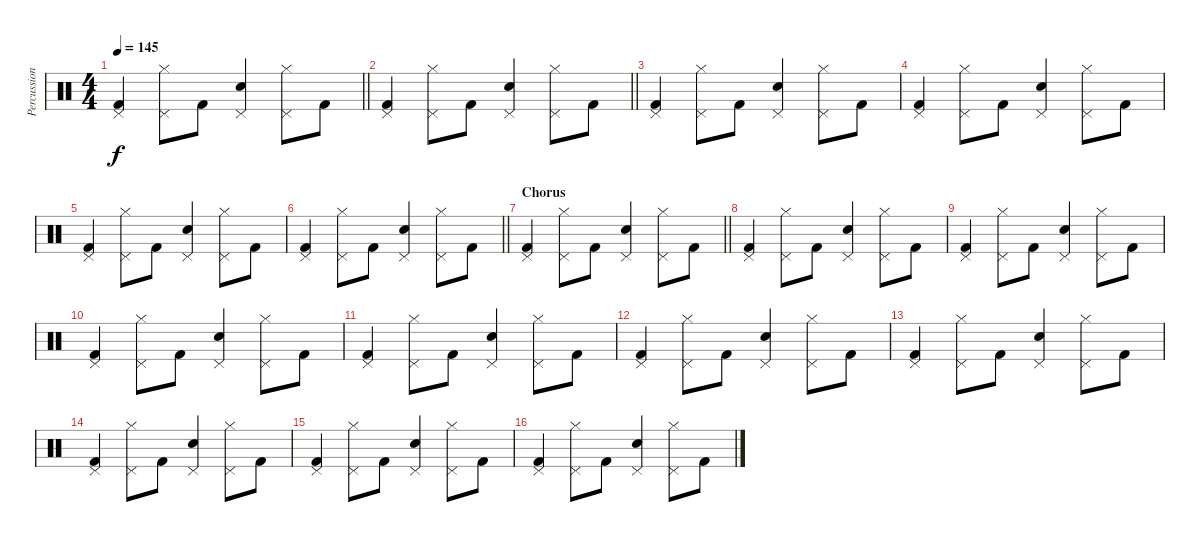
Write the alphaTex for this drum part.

\track ("Percussion" "Percussion") {instrument percussion}
\staff {score}
\articulation defaults
\ts (4 4)
\tempo 145
\clef neutral
\barLineRight lightlight
\ks c
("Kick (hit) 2" "Pedal Hi-Hat (hit)").4{dy f} ("Hi-Hat (closed)" "Pedal Hi-Hat (hit)").8 "Kick (hit) 2".8 ("Snare (hit) 2" "Pedal Hi-Hat (hit)").4 ("Hi-Hat (closed)" "Pedal Hi-Hat (hit)").8 "Kick (hit) 2".8 |
\barLineRight lightlight
("Kick (hit) 2" "Pedal Hi-Hat (hit)").4 ("Hi-Hat (closed)" "Pedal Hi-Hat (hit)").8 "Kick (hit) 2".8 ("Snare (hit) 2" "Pedal Hi-Hat (hit)").4 ("Hi-Hat (closed)" "Pedal Hi-Hat (hit)").8 "Kick (hit) 2".8 |
("Kick (hit) 2" "Pedal Hi-Hat (hit)").4 ("Hi-Hat (closed)" "Pedal Hi-Hat (hit)").8 "Kick (hit) 2".8 ("Snare (hit) 2" "Pedal Hi-Hat (hit)").4 ("Hi-Hat (closed)" "Pedal Hi-Hat (hit)").8 "Kick (hit) 2".8 |
("Kick (hit) 2" "Pedal Hi-Hat (hit)").4 ("Hi-Hat (closed)" "Pedal Hi-Hat (hit)").8 "Kick (hit) 2".8 ("Snare (hit) 2" "Pedal Hi-Hat (hit)").4 ("Hi-Hat (closed)" "Pedal Hi-Hat (hit)").8 "Kick (hit) 2".8 |
("Kick (hit) 2" "Pedal Hi-Hat (hit)").4 ("Hi-Hat (closed)" "Pedal Hi-Hat (hit)").8 "Kick (hit) 2".8 ("Snare (hit) 2" "Pedal Hi-Hat (hit)").4 ("Hi-Hat (closed)" "Pedal Hi-Hat (hit)").8 "Kick (hit) 2".8 |
\barLineRight lightlight
("Kick (hit) 2" "Pedal Hi-Hat (hit)").4 ("Hi-Hat (closed)" "Pedal Hi-Hat (hit)").8 "Kick (hit) 2".8 ("Snare (hit) 2" "Pedal Hi-Hat (hit)").4 ("Hi-Hat (closed)" "Pedal Hi-Hat (hit)").8 "Kick (hit) 2".8 |
\section ("" "Chorus")
\barLineRight lightlight
("Kick (hit) 2" "Pedal Hi-Hat (hit)").4 ("Hi-Hat (closed)" "Pedal Hi-Hat (hit)").8 "Kick (hit) 2".8 ("Snare (hit) 2" "Pedal Hi-Hat (hit)").4 ("Hi-Hat (closed)" "Pedal Hi-Hat (hit)").8 "Kick (hit) 2".8 |
("Kick (hit) 2" "Pedal Hi-Hat (hit)").4 ("Hi-Hat (closed)" "Pedal Hi-Hat (hit)").8 "Kick (hit) 2".8 ("Snare (hit) 2" "Pedal Hi-Hat (hit)").4 ("Hi-Hat (closed)" "Pedal Hi-Hat (hit)").8 "Kick (hit) 2".8 |
("Kick (hit) 2" "Pedal Hi-Hat (hit)").4 ("Hi-Hat (closed)" "Pedal Hi-Hat (hit)").8 "Kick (hit) 2".8 ("Snare (hit) 2" "Pedal Hi-Hat (hit)").4 ("Hi-Hat (closed)" "Pedal Hi-Hat (hit)").8 "Kick (hit) 2".8 |
("Kick (hit) 2" "Pedal Hi-Hat (hit)").4 ("Hi-Hat (closed)" "Pedal Hi-Hat (hit)").8 "Kick (hit) 2".8 ("Snare (hit) 2" "Pedal Hi-Hat (hit)").4 ("Hi-Hat (closed)" "Pedal Hi-Hat (hit)").8 "Kick (hit) 2".8 |
("Kick (hit) 2" "Pedal Hi-Hat (hit)").4 ("Hi-Hat (closed)" "Pedal Hi-Hat (hit)").8 "Kick (hit) 2".8 ("Snare (hit) 2" "Pedal Hi-Hat (hit)").4 ("Hi-Hat (closed)" "Pedal Hi-Hat (hit)").8 "Kick (hit) 2".8 |
("Kick (hit) 2" "Pedal Hi-Hat (hit)").4 ("Hi-Hat (closed)" "Pedal Hi-Hat (hit)").8 "Kick (hit) 2".8 ("Snare (hit) 2" "Pedal Hi-Hat (hit)").4 ("Hi-Hat (closed)" "Pedal Hi-Hat (hit)").8 "Kick (hit) 2".8 |
("Kick (hit) 2" "Pedal Hi-Hat (hit)").4 ("Hi-Hat (closed)" "Pedal Hi-Hat (hit)").8 "Kick (hit) 2".8 ("Snare (hit) 2" "Pedal Hi-Hat (hit)").4 ("Hi-Hat (closed)" "Pedal Hi-Hat (hit)").8 "Kick (hit) 2".8 |
("Kick (hit) 2" "Pedal Hi-Hat (hit)").4 ("Hi-Hat (closed)" "Pedal Hi-Hat (hit)").8 "Kick (hit) 2".8 ("Snare (hit) 2" "Pedal Hi-Hat (hit)").4 ("Hi-Hat (closed)" "Pedal Hi-Hat (hit)").8 "Kick (hit) 2".8 |
("Kick (hit) 2" "Pedal Hi-Hat (hit)").4 ("Hi-Hat (closed)" "Pedal Hi-Hat (hit)").8 "Kick (hit) 2".8 ("Snare (hit) 2" "Pedal Hi-Hat (hit)").4 ("Hi-Hat (closed)" "Pedal Hi-Hat (hit)").8 "Kick (hit) 2".8 |
("Kick (hit) 2" "Pedal Hi-Hat (hit)").4 ("Hi-Hat (closed)" "Pedal Hi-Hat (hit)").8 "Kick (hit) 2".8 ("Snare (hit) 2" "Pedal Hi-Hat (hit)").4 ("Hi-Hat (closed)" "Pedal Hi-Hat (hit)").8 "Kick (hit) 2".8
